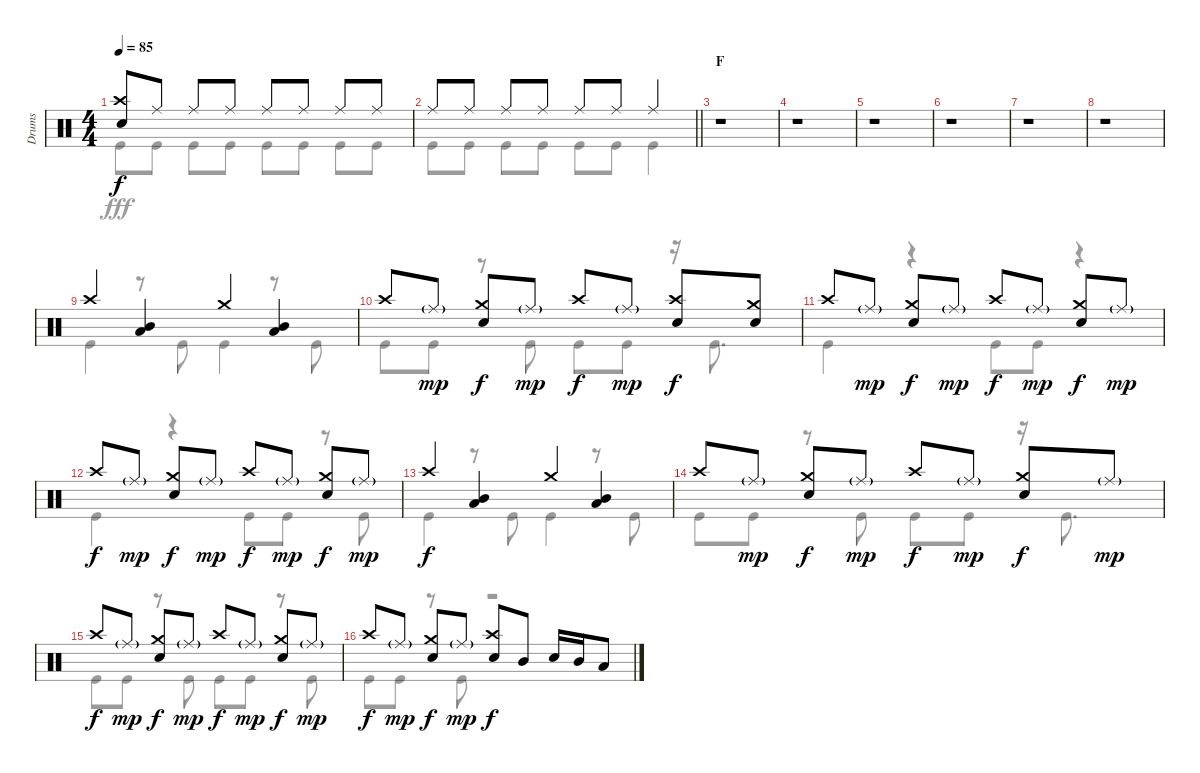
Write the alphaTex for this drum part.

\track ("Drums" "Drums") {instrument percussion}
\staff {score}
\articulation defaults
\voice
\ts (4 4)
\tempo 85
\clef neutral
\ks c
("Crash high (hit)" "Snare (hit) 2").8{dy f} "Ride (middle)".8 "Ride (middle)".8 "Ride (middle)".8 "Ride (middle)".8 "Ride (middle)".8 "Ride (middle)".8 "Ride (middle)".8 |
\barLineRight lightlight "Ride (middle)".8 "Ride (middle)".8 "Ride (middle)".8 "Ride (middle)".8 "Ride (middle)".8 "Ride (middle)".8 "Ride (middle)".4
|
\section ("" "F")
r.1 |
r.1 |
r.1 |
r.1 |
r.1 |
r.1 |
"Crash high (hit)".4 ("Mid Tom (hit)" "Low Tom (hit)").4 "Crash medium (hit)".4 ("Mid Tom (hit)" "Low Tom (hit)").4 |
"Crash high (hit)".8 "Ride (middle)"{g}.8{dy mp} ("Crash medium (hit)" "Snare (hit) 2").8{dy f} "Ride (middle)"{g}.8{dy mp} "Crash high (hit)".8{dy f} "Ride (middle)"{g}.8{dy mp} ("Crash high (hit)" "Snare (hit) 2").8{dy f} ("Crash medium (hit)" "Snare (hit) 2").8 |
"Crash high (hit)".8 "Ride (middle)"{g}.8{dy mp} ("Crash medium (hit)" "Snare (hit) 2").8{dy f} "Ride (middle)"{g}.8{dy mp} "Crash high (hit)".8{dy f} "Ride (middle)"{g}.8{dy mp} ("Crash medium (hit)" "Snare (hit) 2").8{dy f} "Ride (middle)"{g}.8{dy mp} |
"Crash high (hit)".8{dy f} "Ride (middle)"{g}.8{dy mp} ("Crash medium (hit)" "Snare (hit) 2").8{dy f} "Ride (middle)"{g}.8{dy mp} "Crash high (hit)".8{dy f} "Ride (middle)"{g}.8{dy mp} ("Crash medium (hit)" "Snare (hit) 2").8{dy f} "Ride (middle)"{g}.8{dy mp} |
"Crash high (hit)".4{dy f} ("Mid Tom (hit)" "Low Tom (hit)").4 "Crash medium (hit)".4 ("Mid Tom (hit)" "Low Tom (hit)").4 |
"Crash high (hit)".8 "Ride (middle)"{g}.8{dy mp} ("Crash medium (hit)" "Snare (hit) 2").8{dy f} "Ride (middle)"{g}.8{dy mp} "Crash high (hit)".8{dy f} "Ride (middle)"{g}.8{dy mp} ("Crash medium (hit)" "Snare (hit) 2").8{dy f} "Ride (middle)"{g}.8{dy mp} |
"Crash high (hit)".8{dy f} "Ride (middle)"{g}.8{dy mp} ("Crash medium (hit)" "Snare (hit) 2").8{dy f} "Ride (middle)"{g}.8{dy mp} "Crash high (hit)".8{dy f} "Ride (middle)"{g}.8{dy mp} ("Crash medium (hit)" "Snare (hit) 2").8{dy f} "Ride (middle)"{g}.8{dy mp} |
"Crash high (hit)".8{dy f} "Ride (middle)"{g}.8{dy mp} ("Crash medium (hit)" "Snare (hit) 2").8{dy f} "Ride (middle)"{g}.8{dy mp} ("Crash high (hit)" "Snare (hit) 2").8{dy f} "Mid Tom (hit)".8 "Snare (hit) 2".16 "Mid Tom (hit)".16 "Low Tom (hit)".8
\voice
\clef neutral
\ottava regular
\simile none
\ks c "Kick (hit)".8{dy fff} "Kick (hit)".8 "Kick (hit)".8 "Kick (hit)".8 "Kick (hit)".8 "Kick (hit)".8 "Kick (hit)".8 "Kick (hit)".8
|
\barLineRight lightlight "Kick (hit)".8 "Kick (hit)".8 "Kick (hit)".8 "Kick (hit)".8 "Kick (hit)".8 "Kick (hit)".8 "Kick (hit)".4
|
r.1 |
r.1 |
r.1 |
r.1 |
r.1 |
r.1 |
"Kick (hit)".4 r.8 "Kick (hit)".8 "Kick (hit)".4 r.8 "Kick (hit)".8 |
"Kick (hit)".8 "Kick (hit)".8 r.8 "Kick (hit)".8 "Kick (hit)".8 "Kick (hit)".8 r.16 "Kick (hit)".8{d} |
"Kick (hit)".4 r.4 "Kick (hit)".8 "Kick (hit)".8 r.4 |
"Kick (hit)".4 r.4 "Kick (hit)".8 "Kick (hit)".8 r.8 "Kick (hit)".8 |
"Kick (hit)".4 r.8 "Kick (hit)".8 "Kick (hit)".4 r.8 "Kick (hit)".8 |
"Kick (hit)".8 "Kick (hit)".8 r.8 "Kick (hit)".8 "Kick (hit)".8 "Kick (hit)".8 r.16 "Kick (hit)".8{d} |
"Kick (hit)".8 "Kick (hit)".8 r.8 "Kick (hit)".8 "Kick (hit)".8 "Kick (hit)".8 r.8 "Kick (hit)".8 |
"Kick (hit)".8 "Kick (hit)".8 r.8 "Kick (hit)".8 r.2
